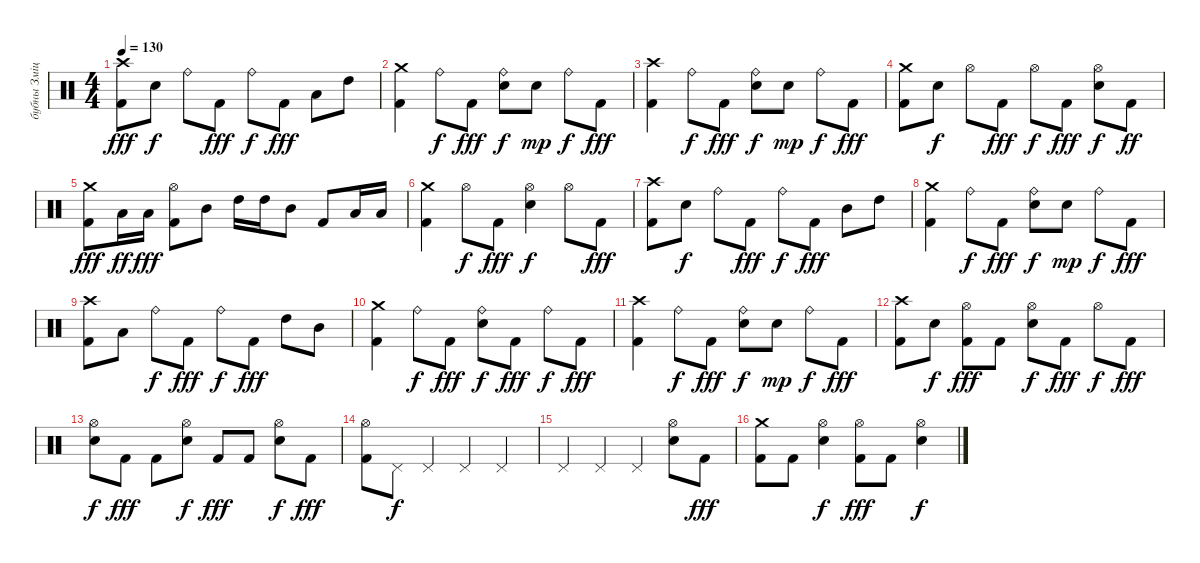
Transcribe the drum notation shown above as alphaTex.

\track ("бубны Змiцер" "бубны Змiц") {instrument percussion}
\staff {score}
\articulation defaults
\ts (4 4)
\tempo 130
\clef neutral
\ks c
("Crash high (hit)" "Kick (hit) 2").8{dy fff} "Electric Snare (hit)".8{dy f} "Ride (bell)".8 "Kick (hit) 2".8{dy fff} "Ride (bell)".8{dy f} "Kick (hit) 2".8{dy fff} "Low Tom (hit)".8 "High Tom (hit)".8 |
("Crash medium (hit)" "Kick (hit) 2").4 "Ride (bell)".8{dy f} "Kick (hit) 2".8{dy fff} ("Ride (bell)" "Electric Snare (hit)").8{dy f} "Electric Snare (hit)".8{dy mp} "Ride (bell)".8{dy f} "Kick (hit) 2".8{dy fff} |
("Crash high (hit)" "Kick (hit) 2").4 "Ride (bell)".8{dy f} "Kick (hit) 2".8{dy fff} ("Ride (bell)" "Electric Snare (hit)").8{dy f} "Electric Snare (hit)".8{dy mp} "Ride (bell)".8{dy f} "Kick (hit) 2".8{dy fff} |
("Crash medium (hit)" "Kick (hit) 2").8 "Electric Snare (hit)".8{dy f} "Hi-Hat (open)".8 "Kick (hit) 2".8{dy fff} "Hi-Hat (open)".8{dy f} "Kick (hit) 2".8{dy fff} ("Hi-Hat (open)" "Electric Snare (hit)").8{dy f} "Kick (hit) 2".8{dy ff} |
("Crash medium (hit)" "Kick (hit) 2").8{dy fff} "Low Tom (hit)".16{dy ff} "Low Tom (hit)".16{dy fff} ("Hi-Hat (open)" "Kick (hit) 2").8 "Mid Tom (hit)".8 "High Tom (hit)".16 "High Tom (hit)".16 "Mid Tom (hit)".8 "Kick (hit) 2".8 "Low Tom (hit)".16 "Low Tom (hit)".16 |
("Crash medium (hit)" "Kick (hit) 2").4 "Hi-Hat (open)".8{dy f} "Kick (hit) 2".8{dy fff} ("Hi-Hat (open)" "Electric Snare (hit)").4{dy f} "Hi-Hat (open)".8 "Kick (hit) 2".8{dy fff} |
("Crash high (hit)" "Kick (hit) 2").8 "Electric Snare (hit)".8{dy f} "Ride (bell)".8 "Kick (hit) 2".8{dy fff} "Ride (bell)".8{dy f} "Kick (hit) 2".8{dy fff} "Mid Tom (hit)".8 "High Tom (hit)".8 |
("Crash medium (hit)" "Kick (hit) 2").4 "Ride (bell)".8{dy f} "Kick (hit) 2".8{dy fff} ("Ride (bell)" "Electric Snare (hit)").8{dy f} "Electric Snare (hit)".8{dy mp} "Ride (bell)".8{dy f} "Kick (hit) 2".8{dy fff} |
("Crash high (hit)" "Kick (hit) 2").8 "Low Tom (hit)".8 "Ride (bell)".8{dy f} "Kick (hit) 2".8{dy fff} "Ride (bell)".8{dy f} "Kick (hit) 2".8{dy fff} "High Tom (hit)".8 "Mid Tom (hit)".8 |
("Crash medium (hit)" "Kick (hit) 2").4 "Ride (bell)".8{dy f} "Kick (hit) 2".8{dy fff} ("Ride (bell)" "Electric Snare (hit)").8{dy f} "Kick (hit) 2".8{dy fff} "Ride (bell)".8{dy f} "Kick (hit) 2".8{dy fff} |
("Crash high (hit)" "Kick (hit) 2").4 "Ride (bell)".8{dy f} "Kick (hit) 2".8{dy fff} ("Ride (bell)" "Electric Snare (hit)").8{dy f} "Electric Snare (hit)".8{dy mp} "Ride (bell)".8{dy f} "Kick (hit) 2".8{dy fff} |
("Crash high (hit)" "Kick (hit) 2").8 "Electric Snare (hit)".8{dy f} ("Hi-Hat (open)" "Kick (hit) 2").8{dy fff} "Kick (hit) 2".8 ("Hi-Hat (open)" "Electric Snare (hit)").8{dy f} "Kick (hit) 2".8{dy fff} "Hi-Hat (open)".8{dy f} "Kick (hit) 2".8{dy fff} |
("Hi-Hat (open)" "Electric Snare (hit)").8{dy f} "Kick (hit) 2".8{dy fff} "Kick (hit) 2".8 ("Hi-Hat (open)" "Electric Snare (hit)").8{dy f} "Kick (hit) 2".8{dy fff} "Kick (hit) 2".8 ("Hi-Hat (open)" "Electric Snare (hit)").8{dy f} "Kick (hit) 2".8{dy fff} |
("Hi-Hat (open)" "Kick (hit) 2").8 "Pedal Hi-Hat (hit)".8{dy f} "Pedal Hi-Hat (hit)".4 "Pedal Hi-Hat (hit)".4 "Pedal Hi-Hat (hit)".4 |
"Pedal Hi-Hat (hit)".4 "Pedal Hi-Hat (hit)".4 "Pedal Hi-Hat (hit)".4 ("Hi-Hat (open)" "Electric Snare (hit)").8 "Kick (hit) 2".8{dy fff} |
("Crash medium (hit)" "Kick (hit) 2").8 "Kick (hit) 2".8 ("Hi-Hat (open)" "Electric Snare (hit)").4{dy f} ("Hi-Hat (open)" "Kick (hit) 2").8{dy fff} "Kick (hit) 2".8 ("Hi-Hat (open)" "Electric Snare (hit)").4{dy f}
